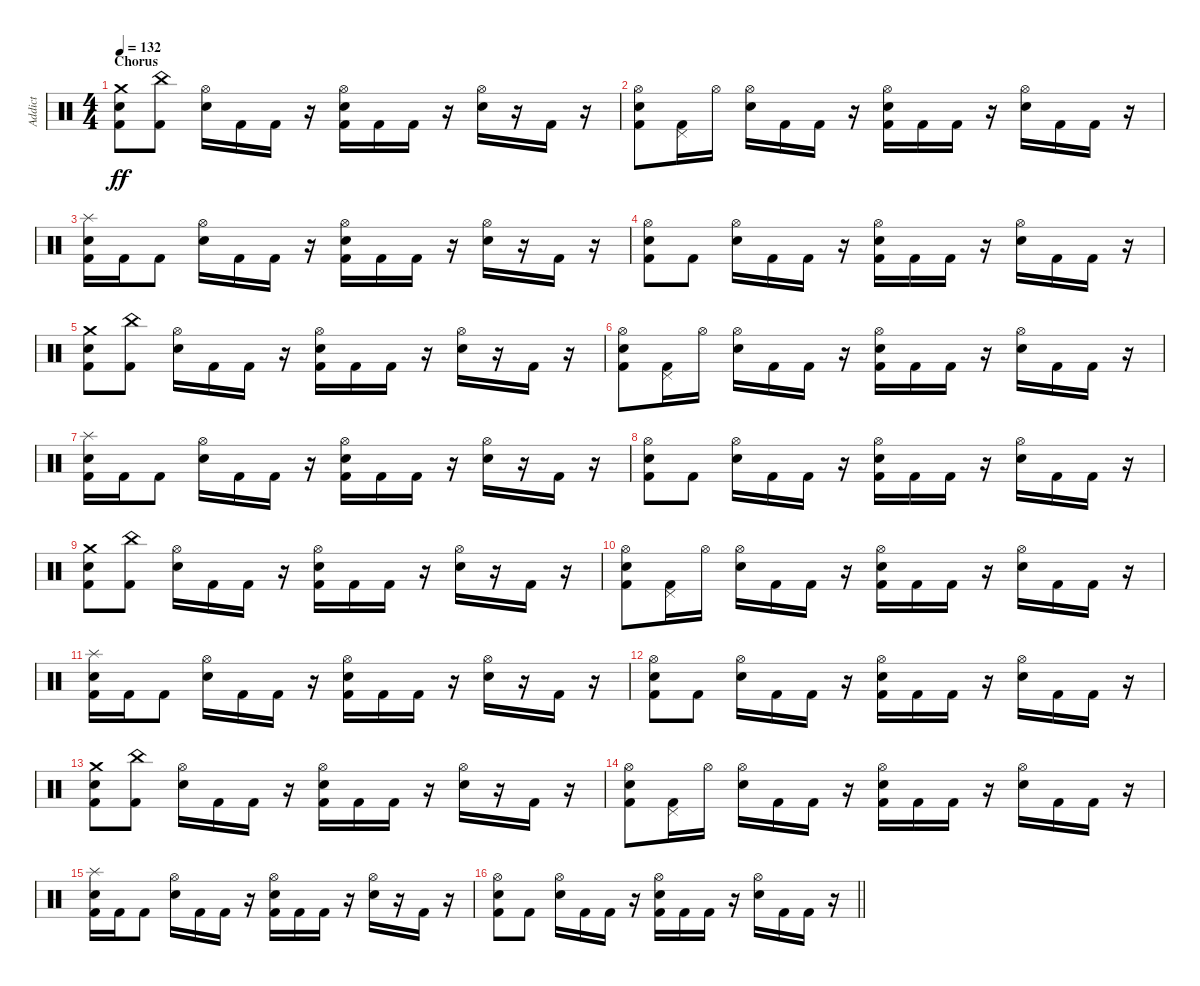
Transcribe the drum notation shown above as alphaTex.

\track ("Addict" "Addict") {instrument percussion}
\staff {score}
\articulation defaults
\ts (4 4)
\section ("" "Chorus")
\tempo 132
\clef neutral
\ks c
("Kick (hit) 2" "Snare (hit) 2" "Crash medium (hit)").8{dy ff} ("Kick (hit) 2" "China (hit)").8 ("Snare (hit) 2" "Hi-Hat (open)").16 "Kick (hit) 2".16 "Kick (hit) 2".16 r.16 ("Kick (hit) 2" "Snare (hit) 2" "Hi-Hat (open)").16 "Kick (hit) 2".16 "Kick (hit) 2".16 r.16 ("Snare (hit) 2" "Hi-Hat (open)").16 r.16 "Kick (hit) 2".16 r.16 |
("Kick (hit) 2" "Snare (hit) 2" "Hi-Hat (open)").8 ("Kick (hit) 2" "Pedal Hi-Hat (hit)").16 "Hi-Hat (open)".16 ("Snare (hit) 2" "Hi-Hat (open)").16 "Kick (hit) 2".16 "Kick (hit) 2".16 r.16 ("Kick (hit) 2" "Snare (hit) 2" "Hi-Hat (open)").16 "Kick (hit) 2".16 "Kick (hit) 2".16 r.16 ("Snare (hit) 2" "Hi-Hat (open)").16 "Kick (hit) 2".16 "Kick (hit) 2".16 r.16 |
("Kick (hit) 2" "Snare (hit) 2" "Splash (hit)").16 "Kick (hit) 2".16 "Kick (hit) 2".8 ("Snare (hit) 2" "Hi-Hat (open)").16 "Kick (hit) 2".16 "Kick (hit) 2".16 r.16 ("Kick (hit) 2" "Snare (hit) 2" "Hi-Hat (open)").16 "Kick (hit) 2".16 "Kick (hit) 2".16 r.16 ("Snare (hit) 2" "Hi-Hat (open)").16 r.16 "Kick (hit) 2".16 r.16 |
("Kick (hit) 2" "Snare (hit) 2" "Hi-Hat (open)").8 "Kick (hit) 2".8 ("Snare (hit) 2" "Hi-Hat (open)").16 "Kick (hit) 2".16 "Kick (hit) 2".16 r.16 ("Kick (hit) 2" "Snare (hit) 2" "Hi-Hat (open)").16 "Kick (hit) 2".16 "Kick (hit) 2".16 r.16 ("Snare (hit) 2" "Hi-Hat (open)").16 "Kick (hit) 2".16 "Kick (hit) 2".16 r.16 |
("Kick (hit) 2" "Snare (hit) 2" "Crash medium (hit)").8 ("Kick (hit) 2" "China (hit)").8 ("Snare (hit) 2" "Hi-Hat (open)").16 "Kick (hit) 2".16 "Kick (hit) 2".16 r.16 ("Kick (hit) 2" "Snare (hit) 2" "Hi-Hat (open)").16 "Kick (hit) 2".16 "Kick (hit) 2".16 r.16 ("Snare (hit) 2" "Hi-Hat (open)").16 r.16 "Kick (hit) 2".16 r.16 |
("Kick (hit) 2" "Snare (hit) 2" "Hi-Hat (open)").8 ("Kick (hit) 2" "Pedal Hi-Hat (hit)").16 "Hi-Hat (open)".16 ("Snare (hit) 2" "Hi-Hat (open)").16 "Kick (hit) 2".16 "Kick (hit) 2".16 r.16 ("Kick (hit) 2" "Snare (hit) 2" "Hi-Hat (open)").16 "Kick (hit) 2".16 "Kick (hit) 2".16 r.16 ("Snare (hit) 2" "Hi-Hat (open)").16 "Kick (hit) 2".16 "Kick (hit) 2".16 r.16 |
("Kick (hit) 2" "Snare (hit) 2" "Splash (hit)").16 "Kick (hit) 2".16 "Kick (hit) 2".8 ("Snare (hit) 2" "Hi-Hat (open)").16 "Kick (hit) 2".16 "Kick (hit) 2".16 r.16 ("Kick (hit) 2" "Snare (hit) 2" "Hi-Hat (open)").16 "Kick (hit) 2".16 "Kick (hit) 2".16 r.16 ("Snare (hit) 2" "Hi-Hat (open)").16 r.16 "Kick (hit) 2".16 r.16 |
("Kick (hit) 2" "Snare (hit) 2" "Hi-Hat (open)").8 "Kick (hit) 2".8 ("Snare (hit) 2" "Hi-Hat (open)").16 "Kick (hit) 2".16 "Kick (hit) 2".16 r.16 ("Kick (hit) 2" "Snare (hit) 2" "Hi-Hat (open)").16 "Kick (hit) 2".16 "Kick (hit) 2".16 r.16 ("Snare (hit) 2" "Hi-Hat (open)").16 "Kick (hit) 2".16 "Kick (hit) 2".16 r.16 |
("Kick (hit) 2" "Snare (hit) 2" "Crash medium (hit)").8 ("Kick (hit) 2" "China (hit)").8 ("Snare (hit) 2" "Hi-Hat (open)").16 "Kick (hit) 2".16 "Kick (hit) 2".16 r.16 ("Kick (hit) 2" "Snare (hit) 2" "Hi-Hat (open)").16 "Kick (hit) 2".16 "Kick (hit) 2".16 r.16 ("Snare (hit) 2" "Hi-Hat (open)").16 r.16 "Kick (hit) 2".16 r.16 |
("Kick (hit) 2" "Snare (hit) 2" "Hi-Hat (open)").8 ("Kick (hit) 2" "Pedal Hi-Hat (hit)").16 "Hi-Hat (open)".16 ("Snare (hit) 2" "Hi-Hat (open)").16 "Kick (hit) 2".16 "Kick (hit) 2".16 r.16 ("Kick (hit) 2" "Snare (hit) 2" "Hi-Hat (open)").16 "Kick (hit) 2".16 "Kick (hit) 2".16 r.16 ("Snare (hit) 2" "Hi-Hat (open)").16 "Kick (hit) 2".16 "Kick (hit) 2".16 r.16 |
("Kick (hit) 2" "Snare (hit) 2" "Splash (hit)").16 "Kick (hit) 2".16 "Kick (hit) 2".8 ("Snare (hit) 2" "Hi-Hat (open)").16 "Kick (hit) 2".16 "Kick (hit) 2".16 r.16 ("Kick (hit) 2" "Snare (hit) 2" "Hi-Hat (open)").16 "Kick (hit) 2".16 "Kick (hit) 2".16 r.16 ("Snare (hit) 2" "Hi-Hat (open)").16 r.16 "Kick (hit) 2".16 r.16 |
("Kick (hit) 2" "Snare (hit) 2" "Hi-Hat (open)").8 "Kick (hit) 2".8 ("Snare (hit) 2" "Hi-Hat (open)").16 "Kick (hit) 2".16 "Kick (hit) 2".16 r.16 ("Kick (hit) 2" "Snare (hit) 2" "Hi-Hat (open)").16 "Kick (hit) 2".16 "Kick (hit) 2".16 r.16 ("Snare (hit) 2" "Hi-Hat (open)").16 "Kick (hit) 2".16 "Kick (hit) 2".16 r.16 |
("Kick (hit) 2" "Snare (hit) 2" "Crash medium (hit)").8 ("Kick (hit) 2" "China (hit)").8 ("Snare (hit) 2" "Hi-Hat (open)").16 "Kick (hit) 2".16 "Kick (hit) 2".16 r.16 ("Kick (hit) 2" "Snare (hit) 2" "Hi-Hat (open)").16 "Kick (hit) 2".16 "Kick (hit) 2".16 r.16 ("Snare (hit) 2" "Hi-Hat (open)").16 r.16 "Kick (hit) 2".16 r.16 |
("Kick (hit) 2" "Snare (hit) 2" "Hi-Hat (open)").8 ("Kick (hit) 2" "Pedal Hi-Hat (hit)").16 "Hi-Hat (open)".16 ("Snare (hit) 2" "Hi-Hat (open)").16 "Kick (hit) 2".16 "Kick (hit) 2".16 r.16 ("Kick (hit) 2" "Snare (hit) 2" "Hi-Hat (open)").16 "Kick (hit) 2".16 "Kick (hit) 2".16 r.16 ("Snare (hit) 2" "Hi-Hat (open)").16 "Kick (hit) 2".16 "Kick (hit) 2".16 r.16 |
("Kick (hit) 2" "Snare (hit) 2" "Splash (hit)").16 "Kick (hit) 2".16 "Kick (hit) 2".8 ("Snare (hit) 2" "Hi-Hat (open)").16 "Kick (hit) 2".16 "Kick (hit) 2".16 r.16 ("Kick (hit) 2" "Snare (hit) 2" "Hi-Hat (open)").16 "Kick (hit) 2".16 "Kick (hit) 2".16 r.16 ("Snare (hit) 2" "Hi-Hat (open)").16 r.16 "Kick (hit) 2".16 r.16 |
\barLineRight lightlight
("Kick (hit) 2" "Snare (hit) 2" "Hi-Hat (open)").8 "Kick (hit) 2".8 ("Snare (hit) 2" "Hi-Hat (open)").16 "Kick (hit) 2".16 "Kick (hit) 2".16 r.16 ("Kick (hit) 2" "Snare (hit) 2" "Hi-Hat (open)").16 "Kick (hit) 2".16 "Kick (hit) 2".16 r.16 ("Snare (hit) 2" "Hi-Hat (open)").16 "Kick (hit) 2".16 "Kick (hit) 2".16 r.16
